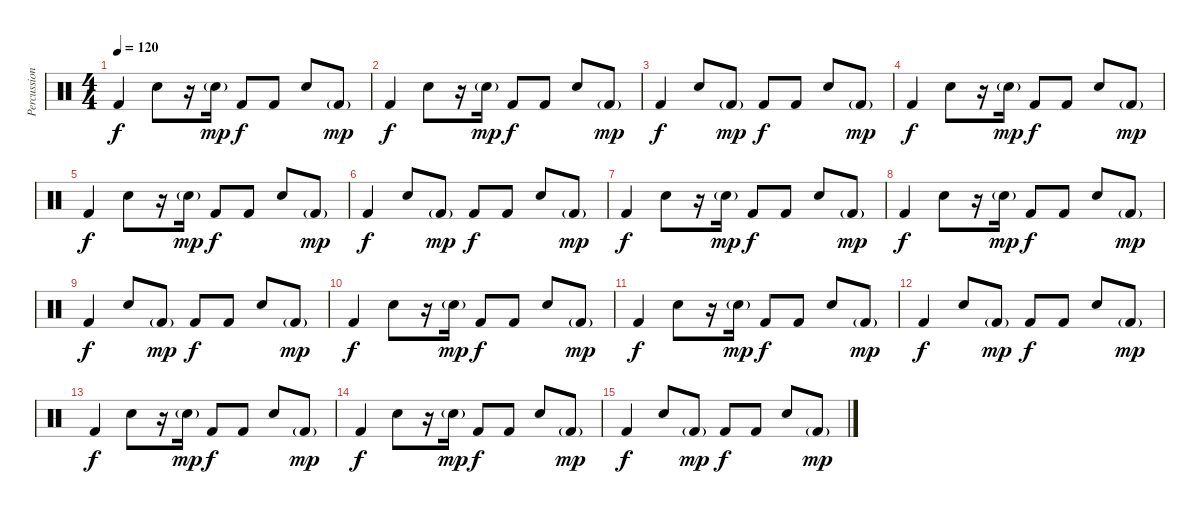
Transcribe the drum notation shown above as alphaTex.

\track ("Percussion" "Percussion") {instrument percussion}
\staff {score}
\articulation defaults
\ts (4 4)
\tempo 120
\clef neutral
\ks c "Kick (hit) 2".4{dy f} "Snare (hit) 2".8
r.16 "Snare (hit) 2"{g}.16{dy mp} "Kick (hit) 2".8{dy f} "Kick (hit) 2".8 "Snare (hit) 2".8 "Kick (hit) 2"{g}.8{dy mp} |
"Kick (hit) 2".4{dy f} "Snare (hit) 2".8 r.16 "Snare (hit) 2"{g}.16{dy mp} "Kick (hit) 2".8{dy f} "Kick (hit) 2".8 "Snare (hit) 2".8 "Kick (hit) 2"{g}.8{dy mp} |
"Kick (hit) 2".4{dy f} "Snare (hit) 2".8 "Kick (hit) 2"{g}.8{dy mp} "Kick (hit) 2".8{dy f} "Kick (hit) 2".8 "Snare (hit) 2".8 "Kick (hit) 2"{g}.8{dy mp} |
"Kick (hit) 2".4{dy f} "Snare (hit) 2".8 r.16 "Snare (hit) 2"{g}.16{dy mp} "Kick (hit) 2".8{dy f} "Kick (hit) 2".8 "Snare (hit) 2".8 "Kick (hit) 2"{g}.8{dy mp} |
"Kick (hit) 2".4{dy f} "Snare (hit) 2".8 r.16 "Snare (hit) 2"{g}.16{dy mp} "Kick (hit) 2".8{dy f} "Kick (hit) 2".8 "Snare (hit) 2".8 "Kick (hit) 2"{g}.8{dy mp} |
"Kick (hit) 2".4{dy f} "Snare (hit) 2".8 "Kick (hit) 2"{g}.8{dy mp} "Kick (hit) 2".8{dy f} "Kick (hit) 2".8 "Snare (hit) 2".8 "Kick (hit) 2"{g}.8{dy mp} |
"Kick (hit) 2".4{dy f} "Snare (hit) 2".8 r.16 "Snare (hit) 2"{g}.16{dy mp} "Kick (hit) 2".8{dy f} "Kick (hit) 2".8 "Snare (hit) 2".8 "Kick (hit) 2"{g}.8{dy mp} |
"Kick (hit) 2".4{dy f} "Snare (hit) 2".8 r.16 "Snare (hit) 2"{g}.16{dy mp} "Kick (hit) 2".8{dy f} "Kick (hit) 2".8 "Snare (hit) 2".8 "Kick (hit) 2"{g}.8{dy mp} |
"Kick (hit) 2".4{dy f} "Snare (hit) 2".8 "Kick (hit) 2"{g}.8{dy mp} "Kick (hit) 2".8{dy f} "Kick (hit) 2".8 "Snare (hit) 2".8 "Kick (hit) 2"{g}.8{dy mp} |
"Kick (hit) 2".4{dy f} "Snare (hit) 2".8 r.16 "Snare (hit) 2"{g}.16{dy mp} "Kick (hit) 2".8{dy f} "Kick (hit) 2".8 "Snare (hit) 2".8 "Kick (hit) 2"{g}.8{dy mp} |
"Kick (hit) 2".4{dy f} "Snare (hit) 2".8 r.16 "Snare (hit) 2"{g}.16{dy mp} "Kick (hit) 2".8{dy f} "Kick (hit) 2".8 "Snare (hit) 2".8 "Kick (hit) 2"{g}.8{dy mp} |
"Kick (hit) 2".4{dy f} "Snare (hit) 2".8 "Kick (hit) 2"{g}.8{dy mp} "Kick (hit) 2".8{dy f} "Kick (hit) 2".8 "Snare (hit) 2".8 "Kick (hit) 2"{g}.8{dy mp} |
"Kick (hit) 2".4{dy f} "Snare (hit) 2".8 r.16 "Snare (hit) 2"{g}.16{dy mp} "Kick (hit) 2".8{dy f} "Kick (hit) 2".8 "Snare (hit) 2".8 "Kick (hit) 2"{g}.8{dy mp} |
"Kick (hit) 2".4{dy f} "Snare (hit) 2".8 r.16 "Snare (hit) 2"{g}.16{dy mp} "Kick (hit) 2".8{dy f} "Kick (hit) 2".8 "Snare (hit) 2".8 "Kick (hit) 2"{g}.8{dy mp} |
"Kick (hit) 2".4{dy f} "Snare (hit) 2".8 "Kick (hit) 2"{g}.8{dy mp} "Kick (hit) 2".8{dy f} "Kick (hit) 2".8 "Snare (hit) 2".8 "Kick (hit) 2"{g}.8{dy mp}
